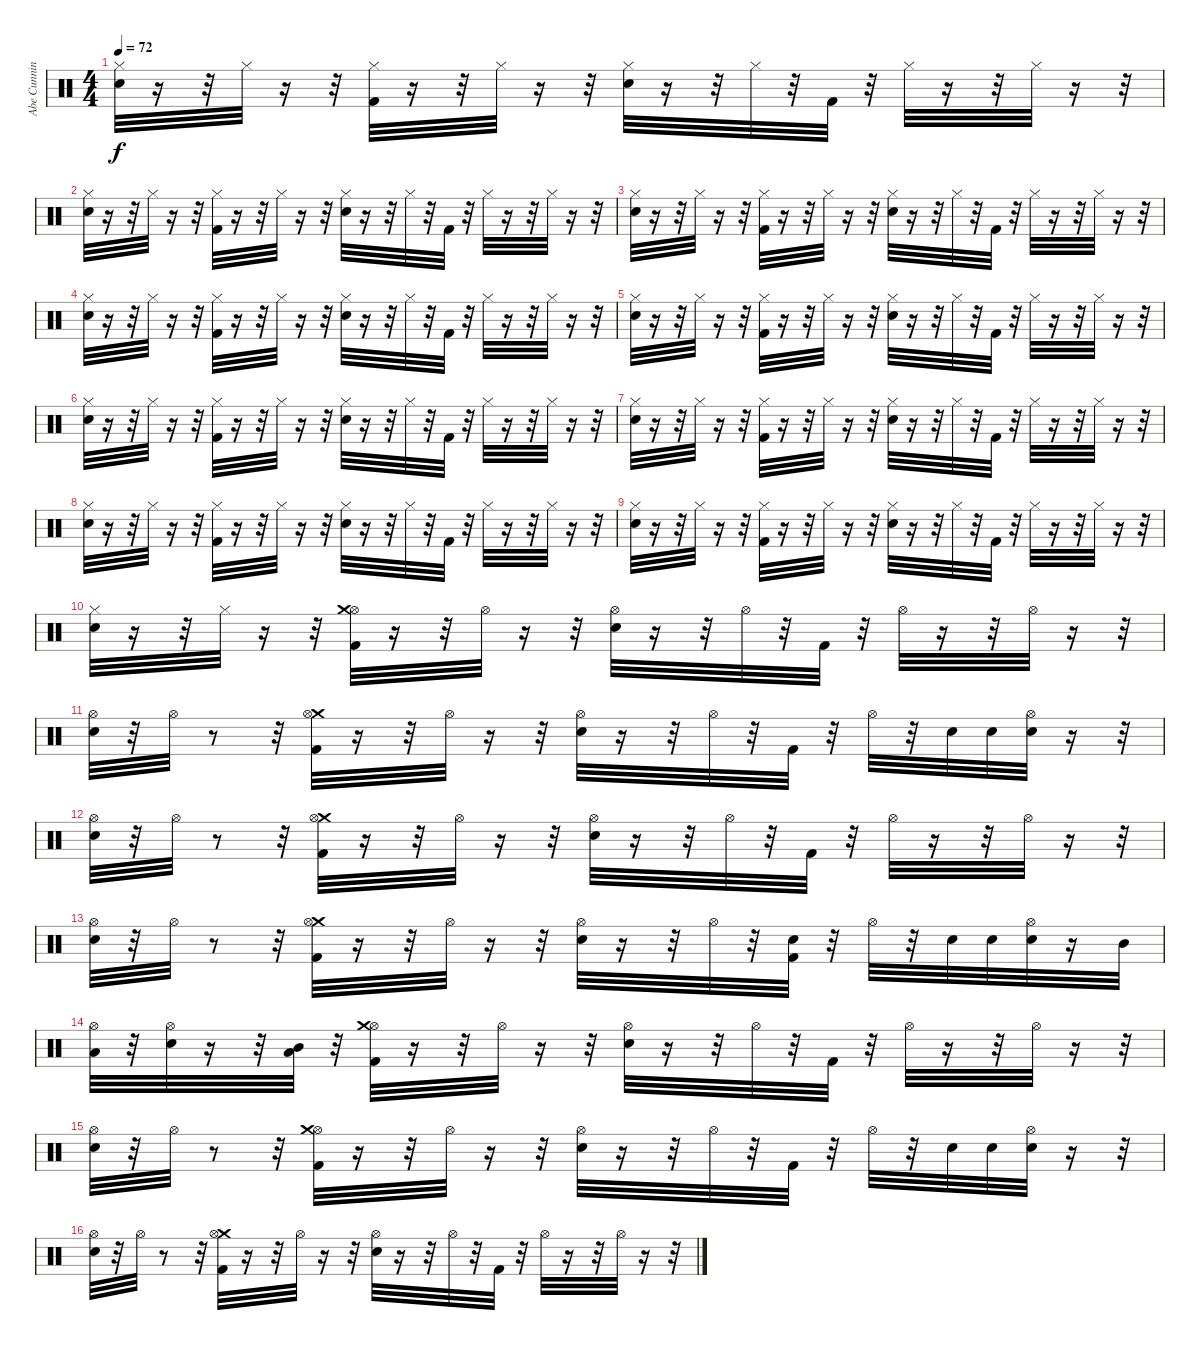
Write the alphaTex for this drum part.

\track ("Abe Cunningham [drums]" "Abe Cunnin") {instrument percussion}
\staff {score}
\articulation defaults
\ts (4 4)
\tempo 72
\clef neutral
\ks c
("Hi-Hat (closed)" "Electric Snare (hit)").32{dy f} r.16 r.32 "Hi-Hat (closed)".32 r.16 r.32 ("Hi-Hat (closed)" "Kick (hit) 2").32 r.16 r.32 "Hi-Hat (closed)".32 r.16 r.32 ("Hi-Hat (closed)" "Electric Snare (hit)").32 r.16 r.32 "Hi-Hat (closed)".32 r.32 "Kick (hit) 2".32 r.32 "Hi-Hat (closed)".32 r.16 r.32 "Hi-Hat (closed)".32 r.16 r.32 |
("Hi-Hat (closed)" "Electric Snare (hit)").32 r.16 r.32 "Hi-Hat (closed)".32 r.16 r.32 ("Hi-Hat (closed)" "Kick (hit) 2").32 r.16 r.32 "Hi-Hat (closed)".32 r.16 r.32 ("Hi-Hat (closed)" "Electric Snare (hit)").32 r.16 r.32 "Hi-Hat (closed)".32 r.32 "Kick (hit) 2".32 r.32 "Hi-Hat (closed)".32 r.16 r.32 "Hi-Hat (closed)".32 r.16 r.32 |
("Hi-Hat (closed)" "Electric Snare (hit)").32 r.16 r.32 "Hi-Hat (closed)".32 r.16 r.32 ("Hi-Hat (closed)" "Kick (hit) 2").32 r.16 r.32 "Hi-Hat (closed)".32 r.16 r.32 ("Hi-Hat (closed)" "Electric Snare (hit)").32 r.16 r.32 "Hi-Hat (closed)".32 r.32 "Kick (hit) 2".32 r.32 "Hi-Hat (closed)".32 r.16 r.32 "Hi-Hat (closed)".32 r.16 r.32 |
("Hi-Hat (closed)" "Electric Snare (hit)").32 r.16 r.32 "Hi-Hat (closed)".32 r.16 r.32 ("Hi-Hat (closed)" "Kick (hit) 2").32 r.16 r.32 "Hi-Hat (closed)".32 r.16 r.32 ("Hi-Hat (closed)" "Electric Snare (hit)").32 r.16 r.32 "Hi-Hat (closed)".32 r.32 "Kick (hit) 2".32 r.32 "Hi-Hat (closed)".32 r.16 r.32 "Hi-Hat (closed)".32 r.16 r.32 |
("Hi-Hat (closed)" "Electric Snare (hit)").32 r.16 r.32 "Hi-Hat (closed)".32 r.16 r.32 ("Hi-Hat (closed)" "Kick (hit) 2").32 r.16 r.32 "Hi-Hat (closed)".32 r.16 r.32 ("Hi-Hat (closed)" "Electric Snare (hit)").32 r.16 r.32 "Hi-Hat (closed)".32 r.32 "Kick (hit) 2".32 r.32 "Hi-Hat (closed)".32 r.16 r.32 "Hi-Hat (closed)".32 r.16 r.32 |
("Hi-Hat (closed)" "Electric Snare (hit)").32 r.16 r.32 "Hi-Hat (closed)".32 r.16 r.32 ("Hi-Hat (closed)" "Kick (hit) 2").32 r.16 r.32 "Hi-Hat (closed)".32 r.16 r.32 ("Hi-Hat (closed)" "Electric Snare (hit)").32 r.16 r.32 "Hi-Hat (closed)".32 r.32 "Kick (hit) 2".32 r.32 "Hi-Hat (closed)".32 r.16 r.32 "Hi-Hat (closed)".32 r.16 r.32 |
("Hi-Hat (closed)" "Electric Snare (hit)").32 r.16 r.32 "Hi-Hat (closed)".32 r.16 r.32 ("Hi-Hat (closed)" "Kick (hit) 2").32 r.16 r.32 "Hi-Hat (closed)".32 r.16 r.32 ("Hi-Hat (closed)" "Electric Snare (hit)").32 r.16 r.32 "Hi-Hat (closed)".32 r.32 "Kick (hit) 2".32 r.32 "Hi-Hat (closed)".32 r.16 r.32 "Hi-Hat (closed)".32 r.16 r.32 |
("Hi-Hat (closed)" "Electric Snare (hit)").32 r.16 r.32 "Hi-Hat (closed)".32 r.16 r.32 ("Hi-Hat (closed)" "Kick (hit) 2").32 r.16 r.32 "Hi-Hat (closed)".32 r.16 r.32 ("Hi-Hat (closed)" "Electric Snare (hit)").32 r.16 r.32 "Hi-Hat (closed)".32 r.32 "Kick (hit) 2".32 r.32 "Hi-Hat (closed)".32 r.16 r.32 "Hi-Hat (closed)".32 r.16 r.32 |
("Hi-Hat (closed)" "Electric Snare (hit)").32 r.16 r.32 "Hi-Hat (closed)".32 r.16 r.32 ("Hi-Hat (closed)" "Kick (hit) 2").32 r.16 r.32 "Hi-Hat (closed)".32 r.16 r.32 ("Hi-Hat (closed)" "Electric Snare (hit)").32 r.16 r.32 "Hi-Hat (closed)".32 r.32 "Kick (hit) 2".32 r.32 "Hi-Hat (closed)".32 r.16 r.32 "Hi-Hat (closed)".32 r.16 r.32 |
("Hi-Hat (closed)" "Electric Snare (hit)").32 r.16 r.32 "Hi-Hat (closed)".32 r.16 r.32 ("Hi-Hat (open)" "Crash medium (hit)" "Kick (hit) 2").32 r.16 r.32 "Hi-Hat (open)".32 r.16 r.32 ("Hi-Hat (open)" "Electric Snare (hit)").32 r.16 r.32 "Hi-Hat (open)".32 r.32 "Kick (hit) 2".32 r.32 "Hi-Hat (open)".32 r.16 r.32 "Hi-Hat (open)".32 r.16 r.32 |
("Hi-Hat (open)" "Electric Snare (hit)").32 r.32 "Hi-Hat (open)".32 r.8 r.32 ("Crash medium (hit)" "Hi-Hat (open)" "Kick (hit) 2").32 r.16 r.32 "Hi-Hat (open)".32 r.16 r.32 ("Hi-Hat (open)" "Electric Snare (hit)").32 r.16 r.32 "Hi-Hat (open)".32 r.32 "Kick (hit) 2".32 r.32 "Hi-Hat (open)".32 r.32 "Electric Snare (hit)".32 "Electric Snare (hit)".32 ("Hi-Hat (open)" "Electric Snare (hit)").32 r.16 r.32 |
("Hi-Hat (open)" "Electric Snare (hit)").32 r.32 "Hi-Hat (open)".32 r.8 r.32 ("Crash medium (hit)" "Hi-Hat (open)" "Kick (hit) 2").32 r.16 r.32 "Hi-Hat (open)".32 r.16 r.32 ("Hi-Hat (open)" "Electric Snare (hit)").32 r.16 r.32 "Hi-Hat (open)".32 r.32 "Kick (hit) 2".32 r.32 "Hi-Hat (open)".32 r.16 r.32 "Hi-Hat (open)".32 r.16 r.32 |
("Hi-Hat (open)" "Electric Snare (hit)").32 r.32 "Hi-Hat (open)".32 r.8 r.32 ("Crash medium (hit)" "Hi-Hat (open)" "Kick (hit) 2").32 r.16 r.32 "Hi-Hat (open)".32 r.16 r.32 ("Hi-Hat (open)" "Electric Snare (hit)").32 r.16 r.32 "Hi-Hat (open)".32 r.32 ("Electric Snare (hit)" "Kick (hit) 2").32 r.32 "Hi-Hat (open)".32 r.32 "Electric Snare (hit)".32 "Electric Snare (hit)".32 ("Hi-Hat (open)" "Electric Snare (hit)").32 r.16 "Mid Tom (hit)".32 |
("Low Tom (hit)" "Hi-Hat (open)").32 r.32 ("Hi-Hat (open)" "Electric Snare (hit)").32 r.16 r.32 ("Mid Tom (hit)" "Low Tom (hit)").32 r.32 ("Hi-Hat (open)" "Crash medium (hit)" "Kick (hit) 2").32 r.16 r.32 "Hi-Hat (open)".32 r.16 r.32 ("Hi-Hat (open)" "Electric Snare (hit)").32 r.16 r.32 "Hi-Hat (open)".32 r.32 "Kick (hit) 2".32 r.32 "Hi-Hat (open)".32 r.16 r.32 "Hi-Hat (open)".32 r.16 r.32 |
("Hi-Hat (open)" "Electric Snare (hit)").32 r.32 "Hi-Hat (open)".32 r.8 r.32 ("Hi-Hat (open)" "Crash medium (hit)" "Kick (hit) 2").32 r.16 r.32 "Hi-Hat (open)".32 r.16 r.32 ("Hi-Hat (open)" "Electric Snare (hit)").32 r.16 r.32 "Hi-Hat (open)".32 r.32 "Kick (hit) 2".32 r.32 "Hi-Hat (open)".32 r.32 "Electric Snare (hit)".32 "Electric Snare (hit)".32 ("Hi-Hat (open)" "Electric Snare (hit)").32 r.16 r.32 |
("Hi-Hat (open)" "Electric Snare (hit)").32 r.32 "Hi-Hat (open)".32 r.8 r.32 ("Crash medium (hit)" "Hi-Hat (open)" "Kick (hit) 2").32 r.16 r.32 "Hi-Hat (open)".32 r.16 r.32 ("Hi-Hat (open)" "Electric Snare (hit)").32 r.16 r.32 "Hi-Hat (open)".32 r.32 "Kick (hit) 2".32 r.32 "Hi-Hat (open)".32 r.16 r.32 "Hi-Hat (open)".32 r.16 r.32
